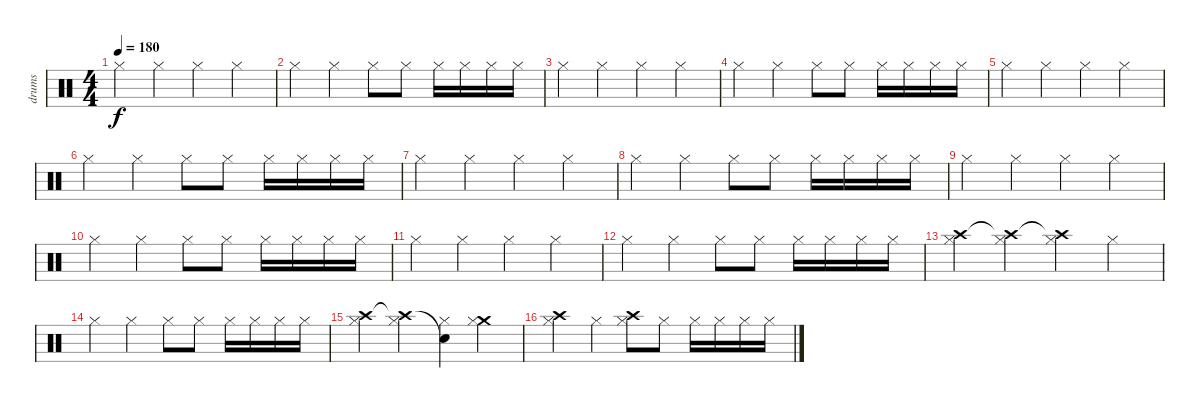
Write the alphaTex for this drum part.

\track ("drums" "drums") {instrument percussion}
\staff {score}
\articulation defaults
\ts (4 4)
\tempo 180
\clef neutral
\ks c "Hi-Hat (closed)".4{dy f} "Hi-Hat (closed)".4 "Hi-Hat (closed)".4 "Hi-Hat (closed)".4
|
"Hi-Hat (closed)".4 "Hi-Hat (closed)".4 "Hi-Hat (closed)".8 "Hi-Hat (closed)".8 "Hi-Hat (closed)".16 "Hi-Hat (closed)".16 "Hi-Hat (closed)".16 "Hi-Hat (closed)".16 |
"Hi-Hat (closed)".4 "Hi-Hat (closed)".4 "Hi-Hat (closed)".4 "Hi-Hat (closed)".4 |
"Hi-Hat (closed)".4 "Hi-Hat (closed)".4 "Hi-Hat (closed)".8 "Hi-Hat (closed)".8 "Hi-Hat (closed)".16 "Hi-Hat (closed)".16 "Hi-Hat (closed)".16 "Hi-Hat (closed)".16 |
"Hi-Hat (closed)".4 "Hi-Hat (closed)".4 "Hi-Hat (closed)".4 "Hi-Hat (closed)".4 |
"Hi-Hat (closed)".4 "Hi-Hat (closed)".4 "Hi-Hat (closed)".8 "Hi-Hat (closed)".8 "Hi-Hat (closed)".16 "Hi-Hat (closed)".16 "Hi-Hat (closed)".16 "Hi-Hat (closed)".16 |
"Hi-Hat (closed)".4 "Hi-Hat (closed)".4 "Hi-Hat (closed)".4 "Hi-Hat (closed)".4 |
"Hi-Hat (closed)".4 "Hi-Hat (closed)".4 "Hi-Hat (closed)".8 "Hi-Hat (closed)".8 "Hi-Hat (closed)".16 "Hi-Hat (closed)".16 "Hi-Hat (closed)".16 "Hi-Hat (closed)".16 |
"Hi-Hat (closed)".4 "Hi-Hat (closed)".4 "Hi-Hat (closed)".4 "Hi-Hat (closed)".4 |
"Hi-Hat (closed)".4 "Hi-Hat (closed)".4 "Hi-Hat (closed)".8 "Hi-Hat (closed)".8 "Hi-Hat (closed)".16 "Hi-Hat (closed)".16 "Hi-Hat (closed)".16 "Hi-Hat (closed)".16 |
"Hi-Hat (closed)".4 "Hi-Hat (closed)".4 "Hi-Hat (closed)".4 "Hi-Hat (closed)".4 |
"Hi-Hat (closed)".4 "Hi-Hat (closed)".4 "Hi-Hat (closed)".8 "Hi-Hat (closed)".8 "Hi-Hat (closed)".16 "Hi-Hat (closed)".16 "Hi-Hat (closed)".16 "Hi-Hat (closed)".16 |
("Crash high (hit)" "Hi-Hat (closed)").4 ("Crash high (hit)"{t} "Hi-Hat (closed)").4 ("Crash high (hit)"{t} "Hi-Hat (closed)").4 "Hi-Hat (closed)".4 |
"Hi-Hat (closed)".4 "Hi-Hat (closed)".4 "Hi-Hat (closed)".8 "Hi-Hat (closed)".8 "Hi-Hat (closed)".16 "Hi-Hat (closed)".16 "Hi-Hat (closed)".16 "Hi-Hat (closed)".16 |
("Crash high (hit)" "Hi-Hat (closed)").4 ("Crash high (hit)"{t} "Hi-Hat (closed)").4 ("Snare (hit)"{t} "Hi-Hat (closed)").4 ("Crash medium (hit)" "Hi-Hat (closed)").4 |
("Crash high (hit)" "Hi-Hat (closed)").4 "Hi-Hat (closed)".4 ("Crash high (hit)" "Hi-Hat (closed)").8 "Hi-Hat (closed)".8 "Hi-Hat (closed)".16 "Hi-Hat (closed)".16 "Hi-Hat (closed)".16 "Hi-Hat (closed)".16
